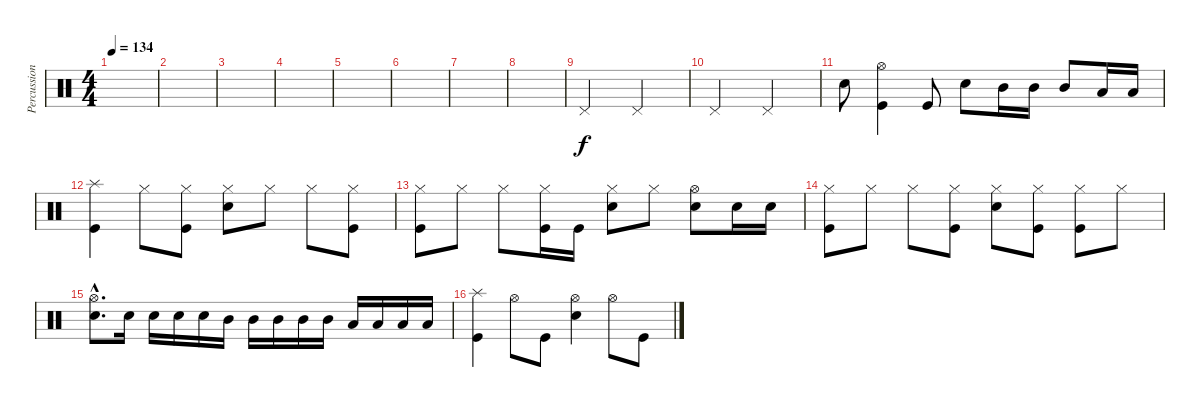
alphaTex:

\track ("Percussions" "Percussion") {instrument percussion}
\staff {score}
\articulation defaults
\ts (4 4)
\tempo 134
\clef neutral
\ks c
|
|
|
|
|
|
|
|
"Pedal Hi-Hat (hit)".2 "Pedal Hi-Hat (hit)".2 |
"Pedal Hi-Hat (hit)".2 "Pedal Hi-Hat (hit)".2 |
"Electric Snare (hit)".8 ("Kick (hit)" "Hi-Hat (open)").4 "Kick (hit)".8 "Electric Snare (hit)".8 "Mid Tom (hit)".16 "Mid Tom (hit)".16 "Mid Tom (hit)".8 "Low Tom (hit)".16 "Low Tom (hit)".16 |
("Kick (hit)" "Splash (hit)").4 "Hi-Hat (closed)".8 ("Kick (hit)" "Hi-Hat (closed)").8 ("Electric Snare (hit)" "Hi-Hat (closed)").8 "Hi-Hat (closed)".8 "Hi-Hat (closed)".8 ("Kick (hit)" "Hi-Hat (closed)").8 |
("Kick (hit)" "Hi-Hat (closed)").8 "Hi-Hat (closed)".8 "Hi-Hat (closed)".8 ("Kick (hit)" "Hi-Hat (closed)").16 "Kick (hit)".16 ("Electric Snare (hit)" "Hi-Hat (closed)").8 "Hi-Hat (closed)".8 ("Electric Snare (hit)" "Hi-Hat (open)").8 "Electric Snare (hit)".16 "Electric Snare (hit)".16 |
("Kick (hit)" "Hi-Hat (closed)").8 "Hi-Hat (closed)".8 "Hi-Hat (closed)".8 ("Kick (hit)" "Hi-Hat (closed)").8 ("Electric Snare (hit)" "Hi-Hat (closed)").8 ("Kick (hit)" "Hi-Hat (closed)").8 ("Kick (hit)" "Hi-Hat (closed)").8 "Hi-Hat (closed)".8 |
("Electric Snare (hit)"{hac} "Hi-Hat (open)"{hac}).8{d} "Electric Snare (hit)".16 "Electric Snare (hit)".16 "Electric Snare (hit)".16 "Electric Snare (hit)".16 "Mid Tom (hit)".16 "Mid Tom (hit)".16 "Mid Tom (hit)".16 "Mid Tom (hit)".16 "Mid Tom (hit)".16 "Low Tom (hit)".16 "Low Tom (hit)".16 "Low Tom (hit)".16 "Low Tom (hit)".16 |
("Kick (hit)" "Splash (hit)").4 "Hi-Hat (open)".8 "Kick (hit)".8 ("Electric Snare (hit)" "Hi-Hat (open)").4 "Hi-Hat (open)".8 "Kick (hit)".8
